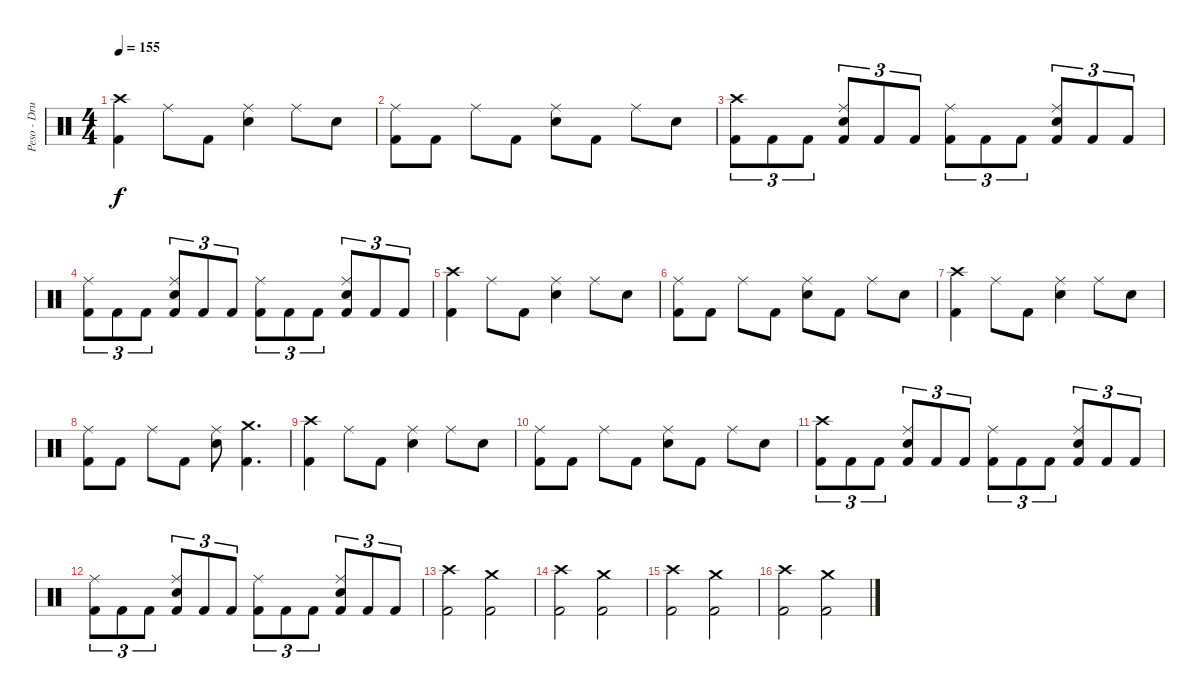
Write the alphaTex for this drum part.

\track ("Peso - Drums" "Peso - Dru") {instrument percussion}
\staff {score}
\articulation defaults
\ts (4 4)
\tempo 155
\clef neutral
\ks c
("Crash high (hit)" "Kick (hit) 2").4{dy f} "Ride (middle)".8 "Kick (hit) 2".8 ("Ride (middle)" "Electric Snare (hit)").4 "Ride (middle)".8 "Electric Snare (hit)".8 |
("Ride (middle)" "Kick (hit) 2").8 "Kick (hit) 2".8 "Ride (middle)".8 "Kick (hit) 2".8 ("Ride (middle)" "Electric Snare (hit)").8 "Kick (hit) 2".8 "Ride (middle)".8 "Electric Snare (hit)".8 |
("Crash high (hit)" "Kick (hit) 2").8{tu (3 2)} "Kick (hit) 2".8{tu (3 2)} "Kick (hit) 2".8{tu (3 2)} ("Ride (middle)" "Electric Snare (hit)" "Kick (hit) 2").8{tu (3 2)} "Kick (hit) 2".8{tu (3 2)} "Kick (hit) 2".8{tu (3 2)} ("Ride (middle)" "Kick (hit) 2").8{tu (3 2)} "Kick (hit) 2".8{tu (3 2)} "Kick (hit) 2".8{tu (3 2)} ("Ride (middle)" "Electric Snare (hit)" "Kick (hit) 2").8{tu (3 2)} "Kick (hit) 2".8{tu (3 2)} "Kick (hit) 2".8{tu (3 2)} |
("Ride (middle)" "Kick (hit) 2").8{tu (3 2)} "Kick (hit) 2".8{tu (3 2)} "Kick (hit) 2".8{tu (3 2)} ("Ride (middle)" "Electric Snare (hit)" "Kick (hit) 2").8{tu (3 2)} "Kick (hit) 2".8{tu (3 2)} "Kick (hit) 2".8{tu (3 2)} ("Ride (middle)" "Kick (hit) 2").8{tu (3 2)} "Kick (hit) 2".8{tu (3 2)} "Kick (hit) 2".8{tu (3 2)} ("Ride (middle)" "Electric Snare (hit)" "Kick (hit) 2").8{tu (3 2)} "Kick (hit) 2".8{tu (3 2)} "Kick (hit) 2".8{tu (3 2)} |
("Crash high (hit)" "Kick (hit) 2").4 "Ride (middle)".8 "Kick (hit) 2".8 ("Ride (middle)" "Electric Snare (hit)").4 "Ride (middle)".8 "Electric Snare (hit)".8 |
("Ride (middle)" "Kick (hit) 2").8 "Kick (hit) 2".8 "Ride (middle)".8 "Kick (hit) 2".8 ("Ride (middle)" "Electric Snare (hit)").8 "Kick (hit) 2".8 "Ride (middle)".8 "Electric Snare (hit)".8 |
("Crash high (hit)" "Kick (hit) 2").4 "Ride (middle)".8 "Kick (hit) 2".8 ("Ride (middle)" "Electric Snare (hit)").4 "Ride (middle)".8 "Electric Snare (hit)".8 |
("Ride (middle)" "Kick (hit) 2").8 "Kick (hit) 2".8 "Ride (middle)".8 "Kick (hit) 2".8 ("Ride (middle)" "Electric Snare (hit)").8 ("Crash medium (hit)" "Kick (hit) 2").4{d} |
("Crash high (hit)" "Kick (hit) 2").4 "Ride (middle)".8 "Kick (hit) 2".8 ("Ride (middle)" "Electric Snare (hit)").4 "Ride (middle)".8 "Electric Snare (hit)".8 |
("Ride (middle)" "Kick (hit) 2").8 "Kick (hit) 2".8 "Ride (middle)".8 "Kick (hit) 2".8 ("Ride (middle)" "Electric Snare (hit)").8 "Kick (hit) 2".8 "Ride (middle)".8 "Electric Snare (hit)".8 |
("Crash high (hit)" "Kick (hit) 2").8{tu (3 2)} "Kick (hit) 2".8{tu (3 2)} "Kick (hit) 2".8{tu (3 2)} ("Ride (middle)" "Electric Snare (hit)" "Kick (hit) 2").8{tu (3 2)} "Kick (hit) 2".8{tu (3 2)} "Kick (hit) 2".8{tu (3 2)} ("Ride (middle)" "Kick (hit) 2").8{tu (3 2)} "Kick (hit) 2".8{tu (3 2)} "Kick (hit) 2".8{tu (3 2)} ("Ride (middle)" "Electric Snare (hit)" "Kick (hit) 2").8{tu (3 2)} "Kick (hit) 2".8{tu (3 2)} "Kick (hit) 2".8{tu (3 2)} |
("Ride (middle)" "Kick (hit) 2").8{tu (3 2)} "Kick (hit) 2".8{tu (3 2)} "Kick (hit) 2".8{tu (3 2)} ("Ride (middle)" "Electric Snare (hit)" "Kick (hit) 2").8{tu (3 2)} "Kick (hit) 2".8{tu (3 2)} "Kick (hit) 2".8{tu (3 2)} ("Ride (middle)" "Kick (hit) 2").8{tu (3 2)} "Kick (hit) 2".8{tu (3 2)} "Kick (hit) 2".8{tu (3 2)} ("Ride (middle)" "Electric Snare (hit)" "Kick (hit) 2").8{tu (3 2)} "Kick (hit) 2".8{tu (3 2)} "Kick (hit) 2".8{tu (3 2)} |
("Crash high (hit)" "Kick (hit) 2").2 ("Crash medium (hit)" "Kick (hit) 2").2 |
("Crash high (hit)" "Kick (hit) 2").2 ("Crash medium (hit)" "Kick (hit) 2").2 |
("Crash high (hit)" "Kick (hit) 2").2 ("Crash medium (hit)" "Kick (hit) 2").2 |
("Crash high (hit)" "Kick (hit) 2").2 ("Crash medium (hit)" "Kick (hit) 2").2
